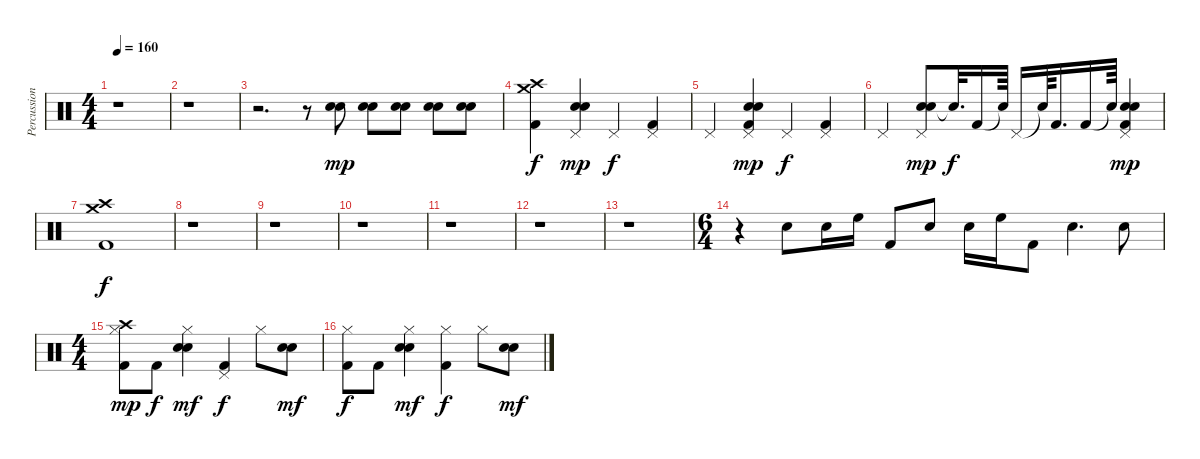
\track ("Percussion" "Percussion") {instrument percussion}
\staff {score}
\articulation defaults
\ts (4 4)
\tempo 160
\clef neutral
\ks c
r.1{dy f} |
r.1 |
r.2{d} r.8 ("Snare (hit) 2" "Electric Snare (hit)").8{dy mp} ("Snare (hit) 2" "Electric Snare (hit)").8 ("Snare (hit) 2" "Electric Snare (hit)").8 ("Snare (hit) 2" "Electric Snare (hit)").8 ("Snare (hit) 2" "Electric Snare (hit)").8 |
("Crash medium (hit)" "Kick (hit) 2" "Crash high (hit)").4{dy f} ("Snare (hit) 2" "Electric Snare (hit)" "Pedal Hi-Hat (hit)").4{dy mp} "Pedal Hi-Hat (hit)".4{dy f} ("Pedal Hi-Hat (hit)" "Kick (hit) 2").4 |
"Pedal Hi-Hat (hit)".4 ("Snare (hit) 2" "Pedal Hi-Hat (hit)" "Kick (hit) 2" "Electric Snare (hit)").4{dy mp} "Pedal Hi-Hat (hit)".4{dy f} ("Kick (hit) 2" "Pedal Hi-Hat (hit)").4 |
"Pedal Hi-Hat (hit)".4 ("Snare (hit) 2" "Electric Snare (hit)" "Pedal Hi-Hat (hit)").8{dy mp} "Snare (hit)"{t}.32{d dy f} "Kick (hit) 2".16 "Snare (hit)"{t}.64 "Pedal Hi-Hat (hit)".16 "Snare (hit)"{t}.64 "Kick (hit) 2".16{d} "Kick (hit) 2".16 "Snare (hit)"{t}.64 ("Snare (hit) 2" "Electric Snare (hit)" "Pedal Hi-Hat (hit)" "Kick (hit) 2").4{dy mp} |
("Kick (hit) 2" "Crash high (hit)" "Crash medium (hit)").1{dy f} |
r.1 |
r.1 |
r.1 |
r.1 |
r.1 |
r.1 |
\ts (6 4)
r.4 "Snare (hit) 2".8 "Snare (hit) 2".16 "High Floor Tom (hit)".16 "Kick (hit) 2".8 "Snare (hit) 2".8 "Snare (hit) 2".16 "High Floor Tom (hit)".16 "Kick (hit) 2".8 "Snare (hit) 2".4{d} "Snare (hit) 2".8 |
\ts (4 4)
("Hi-Hat (closed)" "Kick (hit) 2" "Crash high (hit)").8{dy mp} "Kick (hit) 2".8{dy f} ("Hi-Hat (closed)" "Snare (hit) 2" "Electric Snare (hit)").4{dy mf} ("Pedal Hi-Hat (hit)" "Kick (hit) 2").4{dy f} "Hi-Hat (closed)".8 ("Snare (hit) 2" "Electric Snare (hit)").8{dy mf} |
("Hi-Hat (closed)" "Kick (hit) 2").8{dy f} "Kick (hit) 2".8 ("Hi-Hat (closed)" "Snare (hit) 2" "Electric Snare (hit)").4{dy mf} ("Hi-Hat (closed)" "Kick (hit) 2").4{dy f} "Hi-Hat (closed)".8 ("Snare (hit) 2" "Electric Snare (hit)").8{dy mf}
